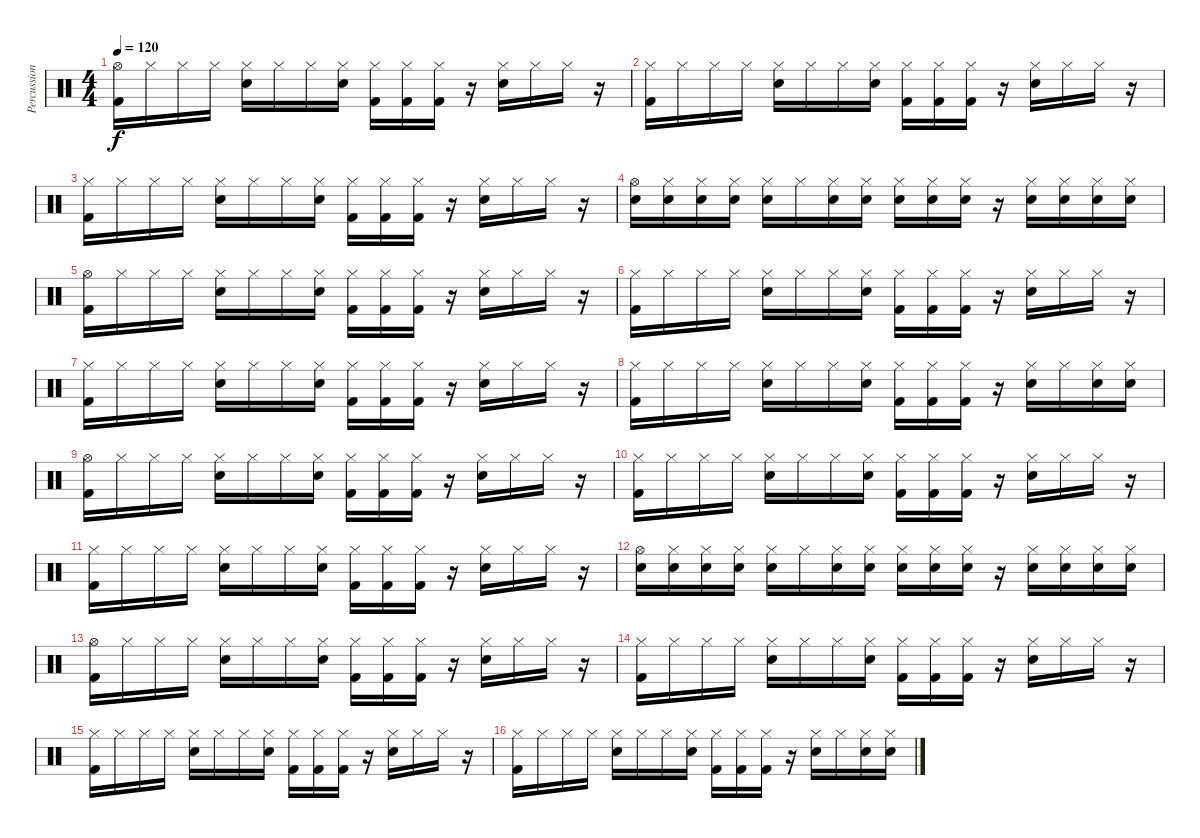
\track ("Percussion" "Percussion") {instrument percussion}
\staff {score}
\articulation defaults
\ts (4 4)
\tempo 120
\clef neutral
\ks c
("Hi-Hat (open)" "Kick (hit) 2").16{dy f} "Hi-Hat (closed)".16 "Hi-Hat (closed)".16 "Hi-Hat (closed)".16 ("Hi-Hat (closed)" "Snare (hit) 2").16 "Hi-Hat (closed)".16 "Hi-Hat (closed)".16 ("Hi-Hat (closed)" "Snare (hit) 2").16 ("Hi-Hat (closed)" "Kick (hit) 2").16 ("Hi-Hat (closed)" "Kick (hit) 2").16 ("Hi-Hat (closed)" "Kick (hit) 2").16 r.16 ("Hi-Hat (closed)" "Snare (hit) 2").16 "Hi-Hat (closed)".16 "Hi-Hat (closed)".16 r.16 |
("Hi-Hat (closed)" "Kick (hit) 2").16 "Hi-Hat (closed)".16 "Hi-Hat (closed)".16 "Hi-Hat (closed)".16 ("Hi-Hat (closed)" "Snare (hit) 2").16 "Hi-Hat (closed)".16 "Hi-Hat (closed)".16 ("Hi-Hat (closed)" "Snare (hit) 2").16 ("Hi-Hat (closed)" "Kick (hit) 2").16 ("Hi-Hat (closed)" "Kick (hit) 2").16 ("Hi-Hat (closed)" "Kick (hit) 2").16 r.16 ("Hi-Hat (closed)" "Snare (hit) 2").16 "Hi-Hat (closed)".16 "Hi-Hat (closed)".16 r.16 |
("Hi-Hat (closed)" "Kick (hit) 2").16 "Hi-Hat (closed)".16 "Hi-Hat (closed)".16 "Hi-Hat (closed)".16 ("Hi-Hat (closed)" "Snare (hit) 2").16 "Hi-Hat (closed)".16 "Hi-Hat (closed)".16 ("Hi-Hat (closed)" "Snare (hit) 2").16 ("Hi-Hat (closed)" "Kick (hit) 2").16 ("Hi-Hat (closed)" "Kick (hit) 2").16 ("Hi-Hat (closed)" "Kick (hit) 2").16 r.16 ("Hi-Hat (closed)" "Snare (hit) 2").16 "Hi-Hat (closed)".16 "Hi-Hat (closed)".16 r.16 |
("Hi-Hat (open)" "Snare (hit) 2").16 ("Hi-Hat (closed)" "Snare (hit) 2").16 ("Hi-Hat (closed)" "Snare (hit) 2").16 ("Hi-Hat (closed)" "Snare (hit) 2").16 ("Hi-Hat (closed)" "Snare (hit) 2").16 "Hi-Hat (closed)".16 ("Hi-Hat (closed)" "Snare (hit) 2").16 ("Hi-Hat (closed)" "Snare (hit) 2").16 ("Hi-Hat (closed)" "Snare (hit) 2").16 ("Hi-Hat (closed)" "Snare (hit) 2").16 ("Hi-Hat (closed)" "Snare (hit) 2").16 r.16 ("Hi-Hat (closed)" "Snare (hit) 2").16 ("Hi-Hat (closed)" "Snare (hit) 2").16 ("Hi-Hat (closed)" "Snare (hit) 2").16 ("Hi-Hat (closed)" "Snare (hit) 2").16 |
("Hi-Hat (open)" "Kick (hit) 2").16 "Hi-Hat (closed)".16 "Hi-Hat (closed)".16 "Hi-Hat (closed)".16 ("Hi-Hat (closed)" "Snare (hit) 2").16 "Hi-Hat (closed)".16 "Hi-Hat (closed)".16 ("Hi-Hat (closed)" "Snare (hit) 2").16 ("Hi-Hat (closed)" "Kick (hit) 2").16 ("Hi-Hat (closed)" "Kick (hit) 2").16 ("Hi-Hat (closed)" "Kick (hit) 2").16 r.16 ("Hi-Hat (closed)" "Snare (hit) 2").16 "Hi-Hat (closed)".16 "Hi-Hat (closed)".16 r.16 |
("Hi-Hat (closed)" "Kick (hit) 2").16 "Hi-Hat (closed)".16 "Hi-Hat (closed)".16 "Hi-Hat (closed)".16 ("Hi-Hat (closed)" "Snare (hit) 2").16 "Hi-Hat (closed)".16 "Hi-Hat (closed)".16 ("Hi-Hat (closed)" "Snare (hit) 2").16 ("Hi-Hat (closed)" "Kick (hit) 2").16 ("Hi-Hat (closed)" "Kick (hit) 2").16 ("Hi-Hat (closed)" "Kick (hit) 2").16 r.16 ("Hi-Hat (closed)" "Snare (hit) 2").16 "Hi-Hat (closed)".16 "Hi-Hat (closed)".16 r.16 |
("Hi-Hat (closed)" "Kick (hit) 2").16 "Hi-Hat (closed)".16 "Hi-Hat (closed)".16 "Hi-Hat (closed)".16 ("Hi-Hat (closed)" "Snare (hit) 2").16 "Hi-Hat (closed)".16 "Hi-Hat (closed)".16 ("Hi-Hat (closed)" "Snare (hit) 2").16 ("Hi-Hat (closed)" "Kick (hit) 2").16 ("Hi-Hat (closed)" "Kick (hit) 2").16 ("Hi-Hat (closed)" "Kick (hit) 2").16 r.16 ("Hi-Hat (closed)" "Snare (hit) 2").16 "Hi-Hat (closed)".16 "Hi-Hat (closed)".16 r.16 |
("Hi-Hat (closed)" "Kick (hit) 2").16 "Hi-Hat (closed)".16 "Hi-Hat (closed)".16 "Hi-Hat (closed)".16 ("Hi-Hat (closed)" "Snare (hit) 2").16 "Hi-Hat (closed)".16 "Hi-Hat (closed)".16 ("Hi-Hat (closed)" "Snare (hit) 2").16 ("Hi-Hat (closed)" "Kick (hit) 2").16 ("Hi-Hat (closed)" "Kick (hit) 2").16 ("Hi-Hat (closed)" "Kick (hit) 2").16 r.16 ("Hi-Hat (closed)" "Snare (hit) 2").16 "Hi-Hat (closed)".16 ("Hi-Hat (closed)" "Snare (hit) 2").16 ("Hi-Hat (closed)" "Snare (hit) 2").16 |
("Hi-Hat (open)" "Kick (hit) 2").16 "Hi-Hat (closed)".16 "Hi-Hat (closed)".16 "Hi-Hat (closed)".16 ("Hi-Hat (closed)" "Snare (hit) 2").16 "Hi-Hat (closed)".16 "Hi-Hat (closed)".16 ("Hi-Hat (closed)" "Snare (hit) 2").16 ("Hi-Hat (closed)" "Kick (hit) 2").16 ("Hi-Hat (closed)" "Kick (hit) 2").16 ("Hi-Hat (closed)" "Kick (hit) 2").16 r.16 ("Hi-Hat (closed)" "Snare (hit) 2").16 "Hi-Hat (closed)".16 "Hi-Hat (closed)".16 r.16 |
("Hi-Hat (closed)" "Kick (hit) 2").16 "Hi-Hat (closed)".16 "Hi-Hat (closed)".16 "Hi-Hat (closed)".16 ("Hi-Hat (closed)" "Snare (hit) 2").16 "Hi-Hat (closed)".16 "Hi-Hat (closed)".16 ("Hi-Hat (closed)" "Snare (hit) 2").16 ("Hi-Hat (closed)" "Kick (hit) 2").16 ("Hi-Hat (closed)" "Kick (hit) 2").16 ("Hi-Hat (closed)" "Kick (hit) 2").16 r.16 ("Hi-Hat (closed)" "Snare (hit) 2").16 "Hi-Hat (closed)".16 "Hi-Hat (closed)".16 r.16 |
("Hi-Hat (closed)" "Kick (hit) 2").16 "Hi-Hat (closed)".16 "Hi-Hat (closed)".16 "Hi-Hat (closed)".16 ("Hi-Hat (closed)" "Snare (hit) 2").16 "Hi-Hat (closed)".16 "Hi-Hat (closed)".16 ("Hi-Hat (closed)" "Snare (hit) 2").16 ("Hi-Hat (closed)" "Kick (hit) 2").16 ("Hi-Hat (closed)" "Kick (hit) 2").16 ("Hi-Hat (closed)" "Kick (hit) 2").16 r.16 ("Hi-Hat (closed)" "Snare (hit) 2").16 "Hi-Hat (closed)".16 "Hi-Hat (closed)".16 r.16 |
("Hi-Hat (open)" "Snare (hit) 2").16 ("Hi-Hat (closed)" "Snare (hit) 2").16 ("Hi-Hat (closed)" "Snare (hit) 2").16 ("Hi-Hat (closed)" "Snare (hit) 2").16 ("Hi-Hat (closed)" "Snare (hit) 2").16 "Hi-Hat (closed)".16 ("Hi-Hat (closed)" "Snare (hit) 2").16 ("Hi-Hat (closed)" "Snare (hit) 2").16 ("Hi-Hat (closed)" "Snare (hit) 2").16 ("Hi-Hat (closed)" "Snare (hit) 2").16 ("Hi-Hat (closed)" "Snare (hit) 2").16 r.16 ("Hi-Hat (closed)" "Snare (hit) 2").16 ("Hi-Hat (closed)" "Snare (hit) 2").16 ("Hi-Hat (closed)" "Snare (hit) 2").16 ("Hi-Hat (closed)" "Snare (hit) 2").16 |
("Hi-Hat (open)" "Kick (hit) 2").16 "Hi-Hat (closed)".16 "Hi-Hat (closed)".16 "Hi-Hat (closed)".16 ("Hi-Hat (closed)" "Snare (hit) 2").16 "Hi-Hat (closed)".16 "Hi-Hat (closed)".16 ("Hi-Hat (closed)" "Snare (hit) 2").16 ("Hi-Hat (closed)" "Kick (hit) 2").16 ("Hi-Hat (closed)" "Kick (hit) 2").16 ("Hi-Hat (closed)" "Kick (hit) 2").16 r.16 ("Hi-Hat (closed)" "Snare (hit) 2").16 "Hi-Hat (closed)".16 "Hi-Hat (closed)".16 r.16 |
("Hi-Hat (closed)" "Kick (hit) 2").16 "Hi-Hat (closed)".16 "Hi-Hat (closed)".16 "Hi-Hat (closed)".16 ("Hi-Hat (closed)" "Snare (hit) 2").16 "Hi-Hat (closed)".16 "Hi-Hat (closed)".16 ("Hi-Hat (closed)" "Snare (hit) 2").16 ("Hi-Hat (closed)" "Kick (hit) 2").16 ("Hi-Hat (closed)" "Kick (hit) 2").16 ("Hi-Hat (closed)" "Kick (hit) 2").16 r.16 ("Hi-Hat (closed)" "Snare (hit) 2").16 "Hi-Hat (closed)".16 "Hi-Hat (closed)".16 r.16 |
("Hi-Hat (closed)" "Kick (hit) 2").16 "Hi-Hat (closed)".16 "Hi-Hat (closed)".16 "Hi-Hat (closed)".16 ("Hi-Hat (closed)" "Snare (hit) 2").16 "Hi-Hat (closed)".16 "Hi-Hat (closed)".16 ("Hi-Hat (closed)" "Snare (hit) 2").16 ("Hi-Hat (closed)" "Kick (hit) 2").16 ("Hi-Hat (closed)" "Kick (hit) 2").16 ("Hi-Hat (closed)" "Kick (hit) 2").16 r.16 ("Hi-Hat (closed)" "Snare (hit) 2").16 "Hi-Hat (closed)".16 "Hi-Hat (closed)".16 r.16 |
("Hi-Hat (closed)" "Kick (hit) 2").16 "Hi-Hat (closed)".16 "Hi-Hat (closed)".16 "Hi-Hat (closed)".16 ("Hi-Hat (closed)" "Snare (hit) 2").16 "Hi-Hat (closed)".16 "Hi-Hat (closed)".16 ("Hi-Hat (closed)" "Snare (hit) 2").16 ("Hi-Hat (closed)" "Kick (hit) 2").16 ("Hi-Hat (closed)" "Kick (hit) 2").16 ("Hi-Hat (closed)" "Kick (hit) 2").16 r.16 ("Hi-Hat (closed)" "Snare (hit) 2").16 "Hi-Hat (closed)".16 ("Hi-Hat (closed)" "Snare (hit) 2").16 ("Hi-Hat (closed)" "Snare (hit) 2").16
